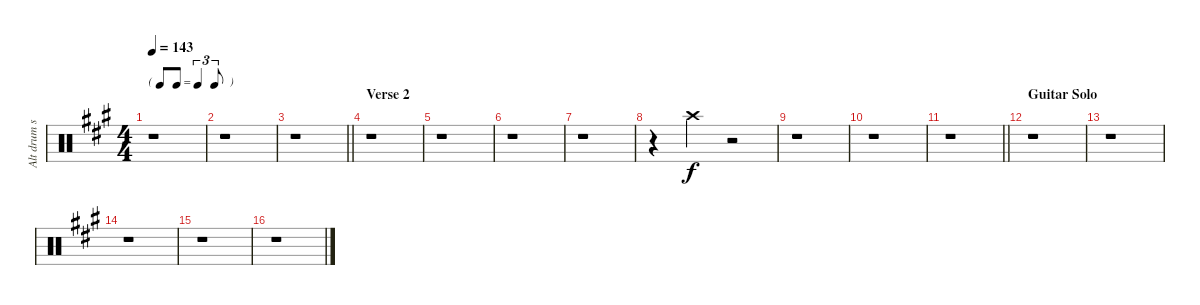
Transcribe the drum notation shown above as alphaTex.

\track ("Alt drum sounds" "Alt drum s") {instrument percussion}
\staff {score}
\articulation defaults
\ts (4 4)
\tf triplet8th
\tempo 143
\clef neutral
\ks a
r.1{dy f} |
r.1 |
\barLineRight lightlight
r.1 |
\section ("" "Verse 2")
r.1 |
r.1 |
r.1 |
r.1 |
r.4 "Crash high (hit)".4 r.2 |
r.1 |
r.1 |
\barLineRight lightlight
r.1 |
\section ("" "Guitar Solo")
r.1 |
r.1 |
r.1 |
r.1 |
r.1
